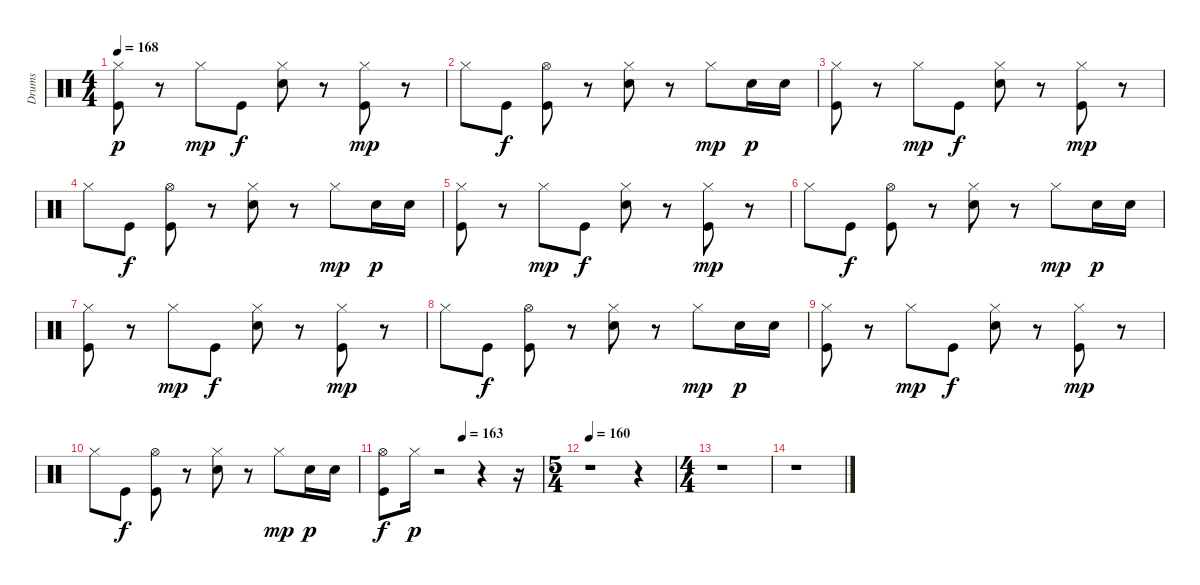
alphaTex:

\track ("Drums" "Drums") {instrument percussion}
\staff {score}
\articulation defaults
\ts (4 4)
\tempo 168
\clef neutral
\ks c
("Hi-Hat (closed)" "Kick (hit)").8{dy p} r.8 "Hi-Hat (closed)".8{dy mp} "Kick (hit)".8{dy f} ("Hi-Hat (closed)" "Electric Snare (hit)").8 r.8 ("Hi-Hat (closed)" "Kick (hit)").8{dy mp} r.8 |
"Hi-Hat (closed)".8 "Kick (hit)".8{dy f} ("Hi-Hat (open)" "Kick (hit)").8 r.8 ("Hi-Hat (closed)" "Electric Snare (hit)").8 r.8 "Hi-Hat (closed)".8{dy mp} "Electric Snare (hit)".16{dy p} "Electric Snare (hit)".16 |
("Hi-Hat (closed)" "Kick (hit)").8 r.8 "Hi-Hat (closed)".8{dy mp} "Kick (hit)".8{dy f} ("Hi-Hat (closed)" "Electric Snare (hit)").8 r.8 ("Hi-Hat (closed)" "Kick (hit)").8{dy mp} r.8 |
"Hi-Hat (closed)".8 "Kick (hit)".8{dy f} ("Hi-Hat (open)" "Kick (hit)").8 r.8 ("Hi-Hat (closed)" "Electric Snare (hit)").8 r.8 "Hi-Hat (closed)".8{dy mp} "Electric Snare (hit)".16{dy p} "Electric Snare (hit)".16 |
("Hi-Hat (closed)" "Kick (hit)").8 r.8 "Hi-Hat (closed)".8{dy mp} "Kick (hit)".8{dy f} ("Hi-Hat (closed)" "Electric Snare (hit)").8 r.8 ("Hi-Hat (closed)" "Kick (hit)").8{dy mp} r.8 |
"Hi-Hat (closed)".8 "Kick (hit)".8{dy f} ("Hi-Hat (open)" "Kick (hit)").8 r.8 ("Hi-Hat (closed)" "Electric Snare (hit)").8 r.8 "Hi-Hat (closed)".8{dy mp} "Electric Snare (hit)".16{dy p} "Electric Snare (hit)".16 |
("Hi-Hat (closed)" "Kick (hit)").8 r.8 "Hi-Hat (closed)".8{dy mp} "Kick (hit)".8{dy f} ("Hi-Hat (closed)" "Electric Snare (hit)").8 r.8 ("Hi-Hat (closed)" "Kick (hit)").8{dy mp} r.8 |
"Hi-Hat (closed)".8 "Kick (hit)".8{dy f} ("Hi-Hat (open)" "Kick (hit)").8 r.8 ("Hi-Hat (closed)" "Electric Snare (hit)").8 r.8 "Hi-Hat (closed)".8{dy mp} "Electric Snare (hit)".16{dy p} "Electric Snare (hit)".16 |
("Hi-Hat (closed)" "Kick (hit)").8 r.8 "Hi-Hat (closed)".8{dy mp} "Kick (hit)".8{dy f} ("Hi-Hat (closed)" "Electric Snare (hit)").8 r.8 ("Hi-Hat (closed)" "Kick (hit)").8{dy mp} r.8 |
"Hi-Hat (closed)".8 "Kick (hit)".8{dy f} ("Hi-Hat (open)" "Kick (hit)").8 r.8 ("Hi-Hat (closed)" "Electric Snare (hit)").8 r.8 "Hi-Hat (closed)".8{dy mp} "Electric Snare (hit)".16{dy p} "Electric Snare (hit)".16 |
\tempo (163 0.5)
("Hi-Hat (open)" "Kick (hit)").8{dy f} "Hi-Hat (closed)".16{dy p} r.2 r.4 r.16 |
\ts (5 4)
\tempo 160
r.1 r.4 |
\ts (4 4)
r.1 |
r.1
